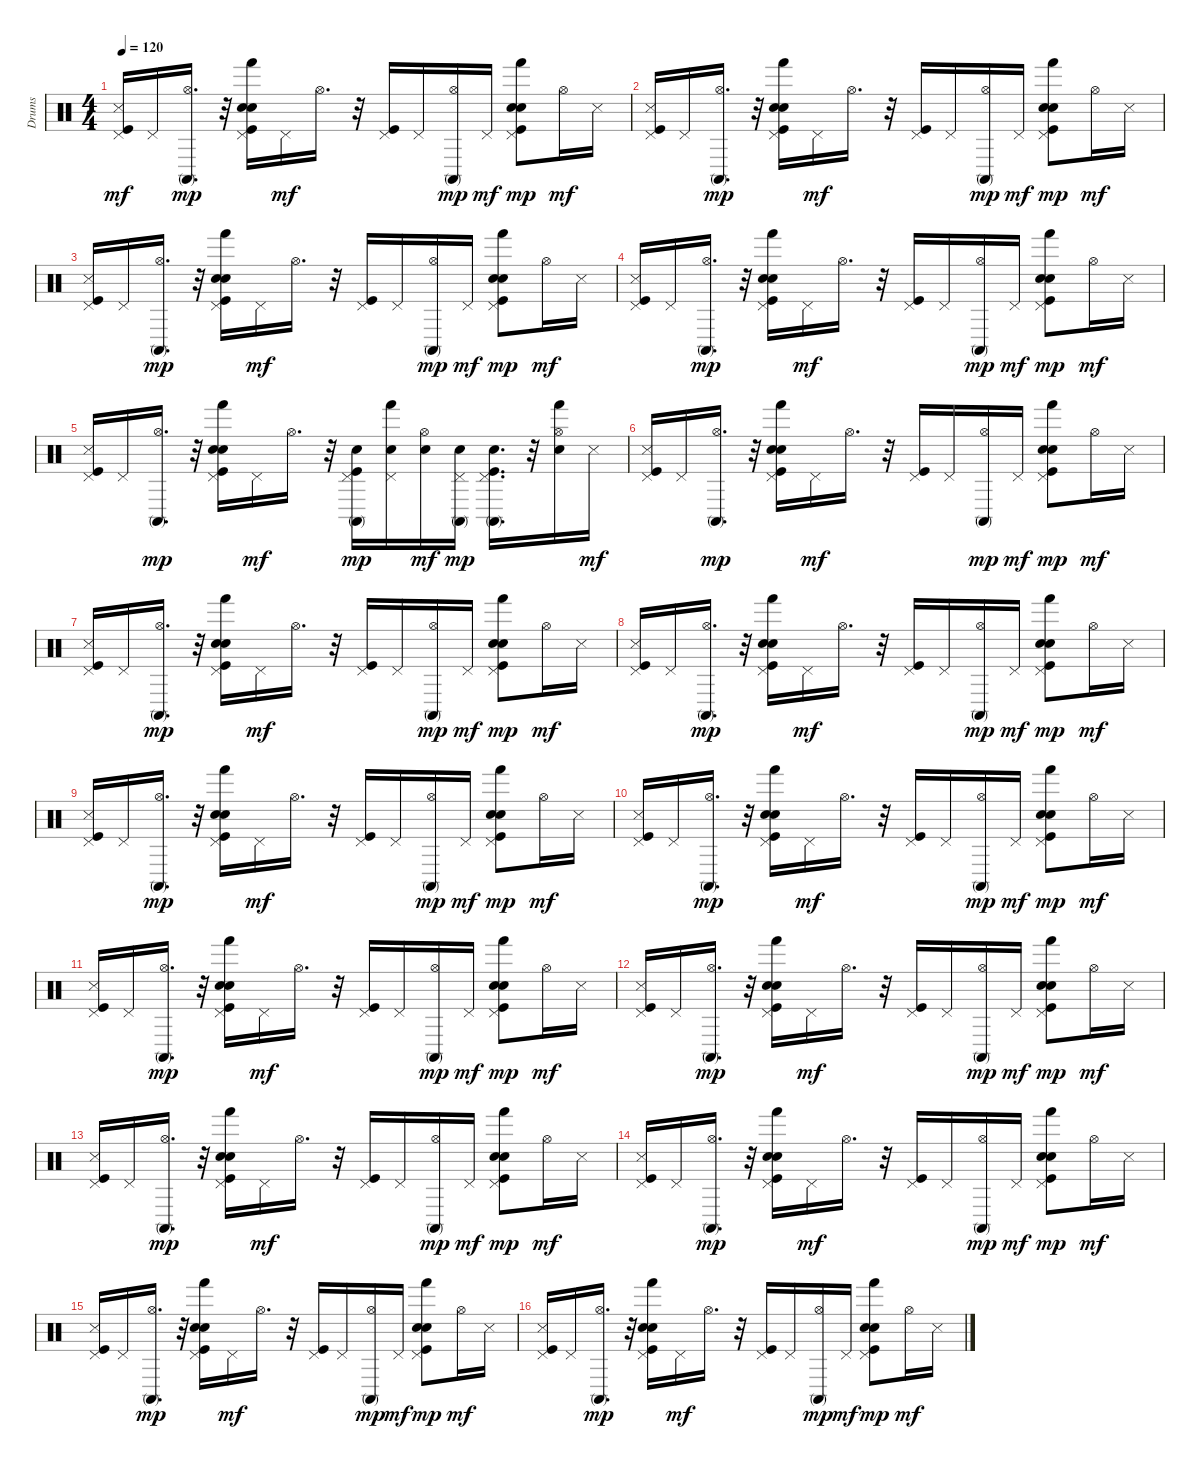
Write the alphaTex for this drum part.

\track ("Drums" "Drums") {instrument percussion}
\staff {score}
\articulation defaults
\ts (4 4)
\tempo 120
\clef neutral
\ks c
("Kick (hit)" "Pedal Hi-Hat (hit)" "Snare (side stick) 3").16{dy mf} "Pedal Hi-Hat (hit)".16 ("Hi-Hat (open)" "Conga high (mute)").16{d dy mp} r.32 ("Snare (hit) 2" "Kick (hit)" "Hand Clap (hit)" "Pedal Hi-Hat (hit)" "Hand (hit)").16 "Pedal Hi-Hat (hit)".16{dy mf} "Hi-Hat (open)".16{d} r.32 ("Kick (hit)" "Pedal Hi-Hat (hit)").16 "Pedal Hi-Hat (hit)".16 ("Hi-Hat (open)" "Conga high (mute)").16{dy mp} "Pedal Hi-Hat (hit)".16{dy mf} ("Snare (hit) 2" "Kick (hit)" "Hand Clap (hit)" "Pedal Hi-Hat (hit)" "Hand (hit)").8{dy mp} "Hi-Hat (open)".16{dy mf} "Snare (side stick) 3".16 |
("Kick (hit)" "Snare (side stick) 3" "Pedal Hi-Hat (hit)").16 "Pedal Hi-Hat (hit)".16 ("Hi-Hat (open)" "Conga high (mute)").16{d dy mp} r.32 ("Kick (hit)" "Snare (hit) 2" "Hand Clap (hit)" "Pedal Hi-Hat (hit)" "Hand (hit)").16 "Pedal Hi-Hat (hit)".16{dy mf} "Hi-Hat (open)".16{d} r.32 ("Kick (hit)" "Pedal Hi-Hat (hit)").16 "Pedal Hi-Hat (hit)".16 ("Hi-Hat (open)" "Conga high (mute)").16{dy mp} "Pedal Hi-Hat (hit)".16{dy mf} ("Kick (hit)" "Snare (hit) 2" "Hand Clap (hit)" "Pedal Hi-Hat (hit)" "Hand (hit)").8{dy mp} "Hi-Hat (open)".16{dy mf} "Snare (side stick) 3".16 |
("Kick (hit)" "Pedal Hi-Hat (hit)" "Snare (side stick) 3").16 "Pedal Hi-Hat (hit)".16 ("Hi-Hat (open)" "Conga high (mute)").16{d dy mp} r.32 ("Snare (hit) 2" "Kick (hit)" "Hand Clap (hit)" "Pedal Hi-Hat (hit)" "Hand (hit)").16 "Pedal Hi-Hat (hit)".16{dy mf} "Hi-Hat (open)".16{d} r.32 ("Kick (hit)" "Pedal Hi-Hat (hit)").16 "Pedal Hi-Hat (hit)".16 ("Hi-Hat (open)" "Conga high (mute)").16{dy mp} "Pedal Hi-Hat (hit)".16{dy mf} ("Snare (hit) 2" "Kick (hit)" "Hand Clap (hit)" "Pedal Hi-Hat (hit)" "Hand (hit)").8{dy mp} "Hi-Hat (open)".16{dy mf} "Snare (side stick) 3".16 |
("Snare (side stick) 3" "Pedal Hi-Hat (hit)" "Kick (hit)").16 "Pedal Hi-Hat (hit)".16 ("Hi-Hat (open)" "Conga high (mute)").16{d dy mp} r.32 ("Hand Clap (hit)" "Pedal Hi-Hat (hit)" "Kick (hit)" "Snare (hit) 2" "Hand (hit)").16 "Pedal Hi-Hat (hit)".16{dy mf} "Hi-Hat (open)".16{d} r.32 ("Pedal Hi-Hat (hit)" "Kick (hit)").16 "Pedal Hi-Hat (hit)".16 ("Hi-Hat (open)" "Conga high (mute)").16{dy mp} "Pedal Hi-Hat (hit)".16{dy mf} ("Hand Clap (hit)" "Pedal Hi-Hat (hit)" "Kick (hit)" "Snare (hit) 2" "Hand (hit)").8{dy mp} "Hi-Hat (open)".16{dy mf} "Snare (side stick) 3".16 |
("Pedal Hi-Hat (hit)" "Snare (side stick) 3" "Kick (hit)").16 "Pedal Hi-Hat (hit)".16 ("Hi-Hat (open)" "Conga high (mute)").16{d dy mp} r.32 ("Hand Clap (hit)" "Pedal Hi-Hat (hit)" "Kick (hit)" "Snare (hit) 2" "Hand (hit)").16 "Pedal Hi-Hat (hit)".16{dy mf} "Hi-Hat (open)".16{d} r.32 ("Pedal Hi-Hat (hit)" "Kick (hit)" "Snare (hit) 2" "Conga high (mute)").16{dy mp} ("Pedal Hi-Hat (hit)" "Snare (hit) 2" "Hand (hit)").16 ("Hi-Hat (open)" "Snare (hit) 2").16{dy mf} ("Pedal Hi-Hat (hit)" "Snare (hit) 2" "Conga high (mute)").16{dy mp} ("Pedal Hi-Hat (hit)" "Kick (hit)" "Snare (hit) 2" "Conga high (mute)").16{d} r.32 ("Hi-Hat (open)" "Snare (hit) 2" "Hand (hit)").16 "Snare (side stick) 3".16{dy mf} |
("Kick (hit)" "Snare (side stick) 3" "Pedal Hi-Hat (hit)").16 "Pedal Hi-Hat (hit)".16 ("Hi-Hat (open)" "Conga high (mute)").16{d dy mp} r.32 ("Kick (hit)" "Snare (hit) 2" "Hand Clap (hit)" "Pedal Hi-Hat (hit)" "Hand (hit)").16 "Pedal Hi-Hat (hit)".16{dy mf} "Hi-Hat (open)".16{d} r.32 ("Kick (hit)" "Pedal Hi-Hat (hit)").16 "Pedal Hi-Hat (hit)".16 ("Hi-Hat (open)" "Conga high (mute)").16{dy mp} "Pedal Hi-Hat (hit)".16{dy mf} ("Kick (hit)" "Snare (hit) 2" "Hand Clap (hit)" "Pedal Hi-Hat (hit)" "Hand (hit)").8{dy mp} "Hi-Hat (open)".16{dy mf} "Snare (side stick) 3".16 |
("Kick (hit)" "Pedal Hi-Hat (hit)" "Snare (side stick) 3").16 "Pedal Hi-Hat (hit)".16 ("Hi-Hat (open)" "Conga high (mute)").16{d dy mp} r.32 ("Snare (hit) 2" "Kick (hit)" "Hand Clap (hit)" "Pedal Hi-Hat (hit)" "Hand (hit)").16 "Pedal Hi-Hat (hit)".16{dy mf} "Hi-Hat (open)".16{d} r.32 ("Kick (hit)" "Pedal Hi-Hat (hit)").16 "Pedal Hi-Hat (hit)".16 ("Hi-Hat (open)" "Conga high (mute)").16{dy mp} "Pedal Hi-Hat (hit)".16{dy mf} ("Snare (hit) 2" "Kick (hit)" "Hand Clap (hit)" "Pedal Hi-Hat (hit)" "Hand (hit)").8{dy mp} "Hi-Hat (open)".16{dy mf} "Snare (side stick) 3".16 |
("Kick (hit)" "Snare (side stick) 3" "Pedal Hi-Hat (hit)").16 "Pedal Hi-Hat (hit)".16 ("Hi-Hat (open)" "Conga high (mute)").16{d dy mp} r.32 ("Kick (hit)" "Snare (hit) 2" "Hand Clap (hit)" "Pedal Hi-Hat (hit)" "Hand (hit)").16 "Pedal Hi-Hat (hit)".16{dy mf} "Hi-Hat (open)".16{d} r.32 ("Kick (hit)" "Pedal Hi-Hat (hit)").16 "Pedal Hi-Hat (hit)".16 ("Hi-Hat (open)" "Conga high (mute)").16{dy mp} "Pedal Hi-Hat (hit)".16{dy mf} ("Kick (hit)" "Snare (hit) 2" "Hand Clap (hit)" "Pedal Hi-Hat (hit)" "Hand (hit)").8{dy mp} "Hi-Hat (open)".16{dy mf} "Snare (side stick) 3".16 |
("Kick (hit)" "Pedal Hi-Hat (hit)" "Snare (side stick) 3").16 "Pedal Hi-Hat (hit)".16 ("Hi-Hat (open)" "Conga high (mute)").16{d dy mp} r.32 ("Snare (hit) 2" "Kick (hit)" "Hand Clap (hit)" "Pedal Hi-Hat (hit)" "Hand (hit)").16 "Pedal Hi-Hat (hit)".16{dy mf} "Hi-Hat (open)".16{d} r.32 ("Kick (hit)" "Pedal Hi-Hat (hit)").16 "Pedal Hi-Hat (hit)".16 ("Hi-Hat (open)" "Conga high (mute)").16{dy mp} "Pedal Hi-Hat (hit)".16{dy mf} ("Snare (hit) 2" "Kick (hit)" "Hand Clap (hit)" "Pedal Hi-Hat (hit)" "Hand (hit)").8{dy mp} "Hi-Hat (open)".16{dy mf} "Snare (side stick) 3".16 |
("Kick (hit)" "Snare (side stick) 3" "Pedal Hi-Hat (hit)").16 "Pedal Hi-Hat (hit)".16 ("Hi-Hat (open)" "Conga high (mute)").16{d dy mp} r.32 ("Kick (hit)" "Snare (hit) 2" "Hand Clap (hit)" "Pedal Hi-Hat (hit)" "Hand (hit)").16 "Pedal Hi-Hat (hit)".16{dy mf} "Hi-Hat (open)".16{d} r.32 ("Kick (hit)" "Pedal Hi-Hat (hit)").16 "Pedal Hi-Hat (hit)".16 ("Hi-Hat (open)" "Conga high (mute)").16{dy mp} "Pedal Hi-Hat (hit)".16{dy mf} ("Kick (hit)" "Snare (hit) 2" "Hand Clap (hit)" "Pedal Hi-Hat (hit)" "Hand (hit)").8{dy mp} "Hi-Hat (open)".16{dy mf} "Snare (side stick) 3".16 |
("Kick (hit)" "Pedal Hi-Hat (hit)" "Snare (side stick) 3").16 "Pedal Hi-Hat (hit)".16 ("Hi-Hat (open)" "Conga high (mute)").16{d dy mp} r.32 ("Snare (hit) 2" "Kick (hit)" "Hand Clap (hit)" "Pedal Hi-Hat (hit)" "Hand (hit)").16 "Pedal Hi-Hat (hit)".16{dy mf} "Hi-Hat (open)".16{d} r.32 ("Kick (hit)" "Pedal Hi-Hat (hit)").16 "Pedal Hi-Hat (hit)".16 ("Hi-Hat (open)" "Conga high (mute)").16{dy mp} "Pedal Hi-Hat (hit)".16{dy mf} ("Snare (hit) 2" "Kick (hit)" "Hand Clap (hit)" "Pedal Hi-Hat (hit)" "Hand (hit)").8{dy mp} "Hi-Hat (open)".16{dy mf} "Snare (side stick) 3".16 |
("Kick (hit)" "Snare (side stick) 3" "Pedal Hi-Hat (hit)").16 "Pedal Hi-Hat (hit)".16 ("Hi-Hat (open)" "Conga high (mute)").16{d dy mp} r.32 ("Kick (hit)" "Snare (hit) 2" "Hand Clap (hit)" "Pedal Hi-Hat (hit)" "Hand (hit)").16 "Pedal Hi-Hat (hit)".16{dy mf} "Hi-Hat (open)".16{d} r.32 ("Kick (hit)" "Pedal Hi-Hat (hit)").16 "Pedal Hi-Hat (hit)".16 ("Hi-Hat (open)" "Conga high (mute)").16{dy mp} "Pedal Hi-Hat (hit)".16{dy mf} ("Kick (hit)" "Snare (hit) 2" "Hand Clap (hit)" "Pedal Hi-Hat (hit)" "Hand (hit)").8{dy mp} "Hi-Hat (open)".16{dy mf} "Snare (side stick) 3".16 |
("Kick (hit)" "Pedal Hi-Hat (hit)" "Snare (side stick) 3").16 "Pedal Hi-Hat (hit)".16 ("Hi-Hat (open)" "Conga high (mute)").16{d dy mp} r.32 ("Snare (hit) 2" "Kick (hit)" "Hand Clap (hit)" "Pedal Hi-Hat (hit)" "Hand (hit)").16 "Pedal Hi-Hat (hit)".16{dy mf} "Hi-Hat (open)".16{d} r.32 ("Kick (hit)" "Pedal Hi-Hat (hit)").16 "Pedal Hi-Hat (hit)".16 ("Hi-Hat (open)" "Conga high (mute)").16{dy mp} "Pedal Hi-Hat (hit)".16{dy mf} ("Snare (hit) 2" "Kick (hit)" "Hand Clap (hit)" "Pedal Hi-Hat (hit)" "Hand (hit)").8{dy mp} "Hi-Hat (open)".16{dy mf} "Snare (side stick) 3".16 |
("Kick (hit)" "Snare (side stick) 3" "Pedal Hi-Hat (hit)").16 "Pedal Hi-Hat (hit)".16 ("Hi-Hat (open)" "Conga high (mute)").16{d dy mp} r.32 ("Kick (hit)" "Snare (hit) 2" "Hand Clap (hit)" "Pedal Hi-Hat (hit)" "Hand (hit)").16 "Pedal Hi-Hat (hit)".16{dy mf} "Hi-Hat (open)".16{d} r.32 ("Kick (hit)" "Pedal Hi-Hat (hit)").16 "Pedal Hi-Hat (hit)".16 ("Hi-Hat (open)" "Conga high (mute)").16{dy mp} "Pedal Hi-Hat (hit)".16{dy mf} ("Kick (hit)" "Snare (hit) 2" "Hand Clap (hit)" "Pedal Hi-Hat (hit)" "Hand (hit)").8{dy mp} "Hi-Hat (open)".16{dy mf} "Snare (side stick) 3".16 |
("Kick (hit)" "Pedal Hi-Hat (hit)" "Snare (side stick) 3").16 "Pedal Hi-Hat (hit)".16 ("Hi-Hat (open)" "Conga high (mute)").16{d dy mp} r.32 ("Snare (hit) 2" "Kick (hit)" "Hand Clap (hit)" "Pedal Hi-Hat (hit)" "Hand (hit)").16 "Pedal Hi-Hat (hit)".16{dy mf} "Hi-Hat (open)".16{d} r.32 ("Kick (hit)" "Pedal Hi-Hat (hit)").16 "Pedal Hi-Hat (hit)".16 ("Hi-Hat (open)" "Conga high (mute)").16{dy mp} "Pedal Hi-Hat (hit)".16{dy mf} ("Snare (hit) 2" "Kick (hit)" "Hand Clap (hit)" "Pedal Hi-Hat (hit)" "Hand (hit)").8{dy mp} "Hi-Hat (open)".16{dy mf} "Snare (side stick) 3".16 |
("Kick (hit)" "Snare (side stick) 3" "Pedal Hi-Hat (hit)").16 "Pedal Hi-Hat (hit)".16 ("Hi-Hat (open)" "Conga high (mute)").16{d dy mp} r.32 ("Kick (hit)" "Snare (hit) 2" "Hand Clap (hit)" "Pedal Hi-Hat (hit)" "Hand (hit)").16 "Pedal Hi-Hat (hit)".16{dy mf} "Hi-Hat (open)".16{d} r.32 ("Kick (hit)" "Pedal Hi-Hat (hit)").16 "Pedal Hi-Hat (hit)".16 ("Hi-Hat (open)" "Conga high (mute)").16{dy mp} "Pedal Hi-Hat (hit)".16{dy mf} ("Kick (hit)" "Snare (hit) 2" "Hand Clap (hit)" "Pedal Hi-Hat (hit)" "Hand (hit)").8{dy mp} "Hi-Hat (open)".16{dy mf} "Snare (side stick) 3".16
